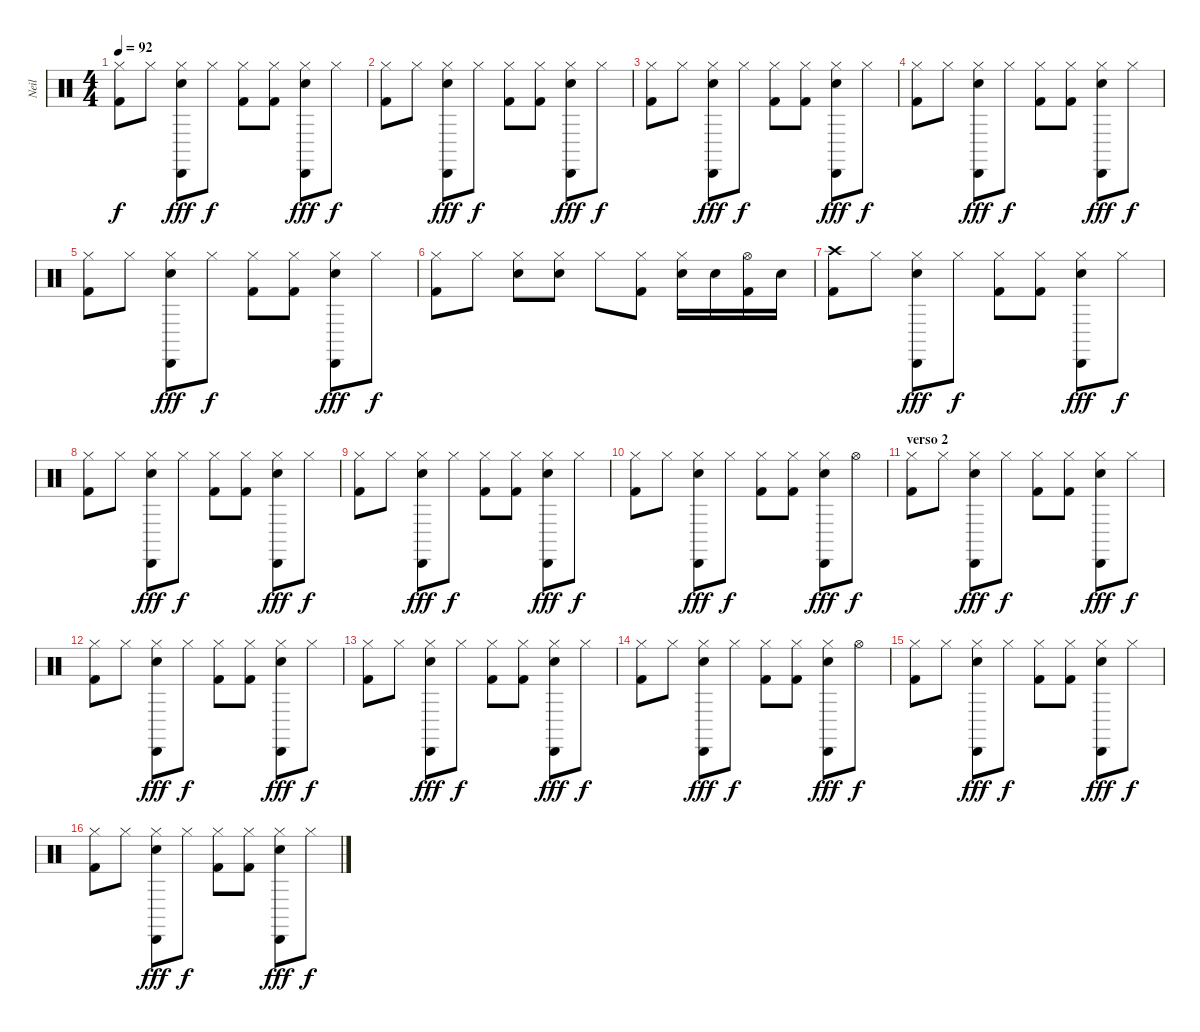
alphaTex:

\track ("Neil" "Neil") {instrument percussion}
\staff {score}
\articulation defaults
\ts (4 4)
\tempo 92
\clef neutral
\ks c
("Hi-Hat (closed)" "Kick (hit) 2").8{dy f} "Hi-Hat (closed)".8 ("Hi-Hat (closed)" "Cabasa (hit)" "Electric Snare (hit)").8{dy fff} "Hi-Hat (closed)".8{dy f} ("Hi-Hat (closed)" "Kick (hit) 2").8 ("Hi-Hat (closed)" "Kick (hit) 2").8 ("Hi-Hat (closed)" "Cabasa (hit)" "Electric Snare (hit)").8{dy fff} "Hi-Hat (closed)".8{dy f} |
("Hi-Hat (closed)" "Kick (hit) 2").8 "Hi-Hat (closed)".8 ("Hi-Hat (closed)" "Cabasa (hit)" "Electric Snare (hit)").8{dy fff} "Hi-Hat (closed)".8{dy f} ("Hi-Hat (closed)" "Kick (hit) 2").8 ("Hi-Hat (closed)" "Kick (hit) 2").8 ("Hi-Hat (closed)" "Cabasa (hit)" "Electric Snare (hit)").8{dy fff} "Hi-Hat (closed)".8{dy f} |
("Hi-Hat (closed)" "Kick (hit) 2").8 "Hi-Hat (closed)".8 ("Hi-Hat (closed)" "Cabasa (hit)" "Electric Snare (hit)").8{dy fff} "Hi-Hat (closed)".8{dy f} ("Hi-Hat (closed)" "Kick (hit) 2").8 ("Hi-Hat (closed)" "Kick (hit) 2").8 ("Hi-Hat (closed)" "Cabasa (hit)" "Electric Snare (hit)").8{dy fff} "Hi-Hat (closed)".8{dy f} |
("Hi-Hat (closed)" "Kick (hit) 2").8 "Hi-Hat (closed)".8 ("Hi-Hat (closed)" "Cabasa (hit)" "Electric Snare (hit)").8{dy fff} "Hi-Hat (closed)".8{dy f} ("Hi-Hat (closed)" "Kick (hit) 2").8 ("Hi-Hat (closed)" "Kick (hit) 2").8 ("Hi-Hat (closed)" "Cabasa (hit)" "Electric Snare (hit)").8{dy fff} "Hi-Hat (closed)".8{dy f} |
("Hi-Hat (closed)" "Kick (hit) 2").8 "Hi-Hat (closed)".8 ("Hi-Hat (closed)" "Cabasa (hit)" "Electric Snare (hit)").8{dy fff} "Hi-Hat (closed)".8{dy f} ("Hi-Hat (closed)" "Kick (hit) 2").8 ("Hi-Hat (closed)" "Kick (hit) 2").8 ("Hi-Hat (closed)" "Cabasa (hit)" "Electric Snare (hit)").8{dy fff} "Hi-Hat (closed)".8{dy f} |
("Hi-Hat (closed)" "Kick (hit) 2").8 "Hi-Hat (closed)".8 ("Hi-Hat (closed)" "Electric Snare (hit)").8 ("Hi-Hat (closed)" "Electric Snare (hit)").8 "Hi-Hat (closed)".8 ("Hi-Hat (closed)" "Kick (hit) 2").8 ("Hi-Hat (closed)" "Electric Snare (hit)").16 "Electric Snare (hit)".16 ("Hi-Hat (open)" "Kick (hit) 2").16 "Electric Snare (hit)".16 |
("Crash high (hit)" "Kick (hit) 2").8 "Hi-Hat (closed)".8 ("Hi-Hat (closed)" "Cabasa (hit)" "Electric Snare (hit)").8{dy fff} "Hi-Hat (closed)".8{dy f} ("Hi-Hat (closed)" "Kick (hit) 2").8 ("Hi-Hat (closed)" "Kick (hit) 2").8 ("Hi-Hat (closed)" "Cabasa (hit)" "Electric Snare (hit)").8{dy fff} "Hi-Hat (closed)".8{dy f} |
("Hi-Hat (closed)" "Kick (hit) 2").8 "Hi-Hat (closed)".8 ("Hi-Hat (closed)" "Cabasa (hit)" "Electric Snare (hit)").8{dy fff} "Hi-Hat (closed)".8{dy f} ("Hi-Hat (closed)" "Kick (hit) 2").8 ("Hi-Hat (closed)" "Kick (hit) 2").8 ("Hi-Hat (closed)" "Cabasa (hit)" "Electric Snare (hit)").8{dy fff} "Hi-Hat (closed)".8{dy f} |
("Hi-Hat (closed)" "Kick (hit) 2").8 "Hi-Hat (closed)".8 ("Hi-Hat (closed)" "Cabasa (hit)" "Electric Snare (hit)").8{dy fff} "Hi-Hat (closed)".8{dy f} ("Hi-Hat (closed)" "Kick (hit) 2").8 ("Hi-Hat (closed)" "Kick (hit) 2").8 ("Hi-Hat (closed)" "Cabasa (hit)" "Electric Snare (hit)").8{dy fff} "Hi-Hat (closed)".8{dy f} |
("Hi-Hat (closed)" "Kick (hit) 2").8 "Hi-Hat (closed)".8 ("Hi-Hat (closed)" "Cabasa (hit)" "Electric Snare (hit)").8{dy fff} "Hi-Hat (closed)".8{dy f} ("Hi-Hat (closed)" "Kick (hit) 2").8 ("Hi-Hat (closed)" "Kick (hit) 2").8 ("Hi-Hat (closed)" "Cabasa (hit)" "Electric Snare (hit)").8{dy fff} "Hi-Hat (open)".8{dy f} |
\section ("" "verso 2")
("Hi-Hat (closed)" "Kick (hit) 2").8 "Hi-Hat (closed)".8 ("Hi-Hat (closed)" "Cabasa (hit)" "Electric Snare (hit)").8{dy fff} "Hi-Hat (closed)".8{dy f} ("Hi-Hat (closed)" "Kick (hit) 2").8 ("Hi-Hat (closed)" "Kick (hit) 2").8 ("Hi-Hat (closed)" "Cabasa (hit)" "Electric Snare (hit)").8{dy fff} "Hi-Hat (closed)".8{dy f} |
("Hi-Hat (closed)" "Kick (hit) 2").8 "Hi-Hat (closed)".8 ("Hi-Hat (closed)" "Cabasa (hit)" "Electric Snare (hit)").8{dy fff} "Hi-Hat (closed)".8{dy f} ("Hi-Hat (closed)" "Kick (hit) 2").8 ("Hi-Hat (closed)" "Kick (hit) 2").8 ("Hi-Hat (closed)" "Cabasa (hit)" "Electric Snare (hit)").8{dy fff} "Hi-Hat (closed)".8{dy f} |
("Hi-Hat (closed)" "Kick (hit) 2").8 "Hi-Hat (closed)".8 ("Hi-Hat (closed)" "Cabasa (hit)" "Electric Snare (hit)").8{dy fff} "Hi-Hat (closed)".8{dy f} ("Hi-Hat (closed)" "Kick (hit) 2").8 ("Hi-Hat (closed)" "Kick (hit) 2").8 ("Hi-Hat (closed)" "Cabasa (hit)" "Electric Snare (hit)").8{dy fff} "Hi-Hat (closed)".8{dy f} |
("Hi-Hat (closed)" "Kick (hit) 2").8 "Hi-Hat (closed)".8 ("Hi-Hat (closed)" "Cabasa (hit)" "Electric Snare (hit)").8{dy fff} "Hi-Hat (closed)".8{dy f} ("Hi-Hat (closed)" "Kick (hit) 2").8 ("Hi-Hat (closed)" "Kick (hit) 2").8 ("Hi-Hat (closed)" "Cabasa (hit)" "Electric Snare (hit)").8{dy fff} "Hi-Hat (open)".8{dy f} |
("Hi-Hat (closed)" "Kick (hit) 2").8 "Hi-Hat (closed)".8 ("Hi-Hat (closed)" "Cabasa (hit)" "Electric Snare (hit)").8{dy fff} "Hi-Hat (closed)".8{dy f} ("Hi-Hat (closed)" "Kick (hit) 2").8 ("Hi-Hat (closed)" "Kick (hit) 2").8 ("Hi-Hat (closed)" "Cabasa (hit)" "Electric Snare (hit)").8{dy fff} "Hi-Hat (closed)".8{dy f} |
("Hi-Hat (closed)" "Kick (hit) 2").8 "Hi-Hat (closed)".8 ("Hi-Hat (closed)" "Cabasa (hit)" "Electric Snare (hit)").8{dy fff} "Hi-Hat (closed)".8{dy f} ("Hi-Hat (closed)" "Kick (hit) 2").8 ("Hi-Hat (closed)" "Kick (hit) 2").8 ("Hi-Hat (closed)" "Cabasa (hit)" "Electric Snare (hit)").8{dy fff} "Hi-Hat (closed)".8{dy f}
